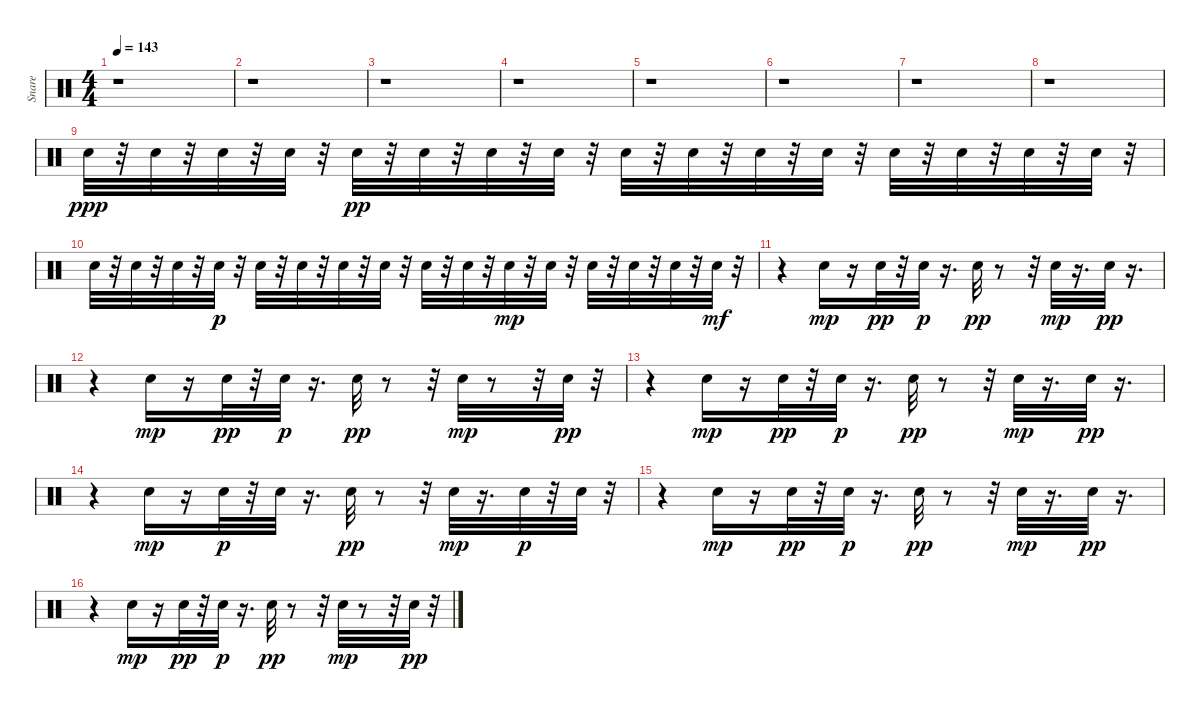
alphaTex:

\track ("Snare    " "Snare    ") {instrument percussion}
\staff {score}
\articulation defaults
\ts (4 4)
\tempo 143
\clef neutral
\ks c
r.1{dy ppp} |
r.1 |
r.1 |
r.1 |
r.1 |
r.1 |
r.1 |
r.1 |
"Electric Snare (hit)".32 r.32 "Electric Snare (hit)".32 r.32 "Electric Snare (hit)".32 r.32 "Electric Snare (hit)".32 r.32 "Electric Snare (hit)".32{dy pp} r.32 "Electric Snare (hit)".32 r.32 "Electric Snare (hit)".32 r.32 "Electric Snare (hit)".32 r.32 "Electric Snare (hit)".32 r.32 "Electric Snare (hit)".32 r.32 "Electric Snare (hit)".32 r.32 "Electric Snare (hit)".32 r.32 "Electric Snare (hit)".32 r.32 "Electric Snare (hit)".32 r.32 "Electric Snare (hit)".32 r.32 "Electric Snare (hit)".32 r.32 |
"Electric Snare (hit)".32 r.32 "Electric Snare (hit)".32 r.32 "Electric Snare (hit)".32 r.32 "Electric Snare (hit)".32{dy p} r.32 "Electric Snare (hit)".32 r.32 "Electric Snare (hit)".32 r.32 "Electric Snare (hit)".32 r.32 "Electric Snare (hit)".32 r.32 "Electric Snare (hit)".32 r.32 "Electric Snare (hit)".32 r.32 "Electric Snare (hit)".32{dy mp} r.32 "Electric Snare (hit)".32 r.32 "Electric Snare (hit)".32 r.32 "Electric Snare (hit)".32 r.32 "Electric Snare (hit)".32 r.32 "Electric Snare (hit)".32{dy mf} r.32 |
r.4 "Electric Snare (hit)".16{dy mp} r.16 "Electric Snare (hit)".32{dy pp} r.32 "Snare (hit) 2".32{dy p} r.16{d} "Electric Snare (hit)".32{dy pp} r.8 r.32 "Electric Snare (hit)".32{dy mp} r.16{d} "Electric Snare (hit)".32{dy pp} r.16{d} |
r.4 "Electric Snare (hit)".16{dy mp} r.16 "Electric Snare (hit)".32{dy pp} r.32 "Snare (hit) 2".32{dy p} r.16{d} "Electric Snare (hit)".32{dy pp} r.8 r.32 "Electric Snare (hit)".32{dy mp} r.8 r.32 "Electric Snare (hit)".32{dy pp} r.32 |
r.4 "Electric Snare (hit)".16{dy mp} r.16 "Electric Snare (hit)".32{dy pp} r.32 "Snare (hit) 2".32{dy p} r.16{d} "Electric Snare (hit)".32{dy pp} r.8 r.32 "Electric Snare (hit)".32{dy mp} r.16{d} "Electric Snare (hit)".32{dy pp} r.16{d} |
r.4 "Electric Snare (hit)".16{dy mp} r.16 "Electric Snare (hit)".32{dy p} r.32 "Snare (hit) 2".32 r.16{d} "Electric Snare (hit)".32{dy pp} r.8 r.32 "Electric Snare (hit)".32{dy mp} r.16{d} "Snare (hit) 2".32{dy p} r.32 "Snare (hit) 2".32 r.32 |
r.4 "Electric Snare (hit)".16{dy mp} r.16 "Electric Snare (hit)".32{dy pp} r.32 "Snare (hit) 2".32{dy p} r.16{d} "Electric Snare (hit)".32{dy pp} r.8 r.32 "Electric Snare (hit)".32{dy mp} r.16{d} "Electric Snare (hit)".32{dy pp} r.16{d} |
r.4 "Electric Snare (hit)".16{dy mp} r.16 "Electric Snare (hit)".32{dy pp} r.32 "Snare (hit) 2".32{dy p} r.16{d} "Electric Snare (hit)".32{dy pp} r.8 r.32 "Electric Snare (hit)".32{dy mp} r.8 r.32 "Electric Snare (hit)".32{dy pp} r.32
